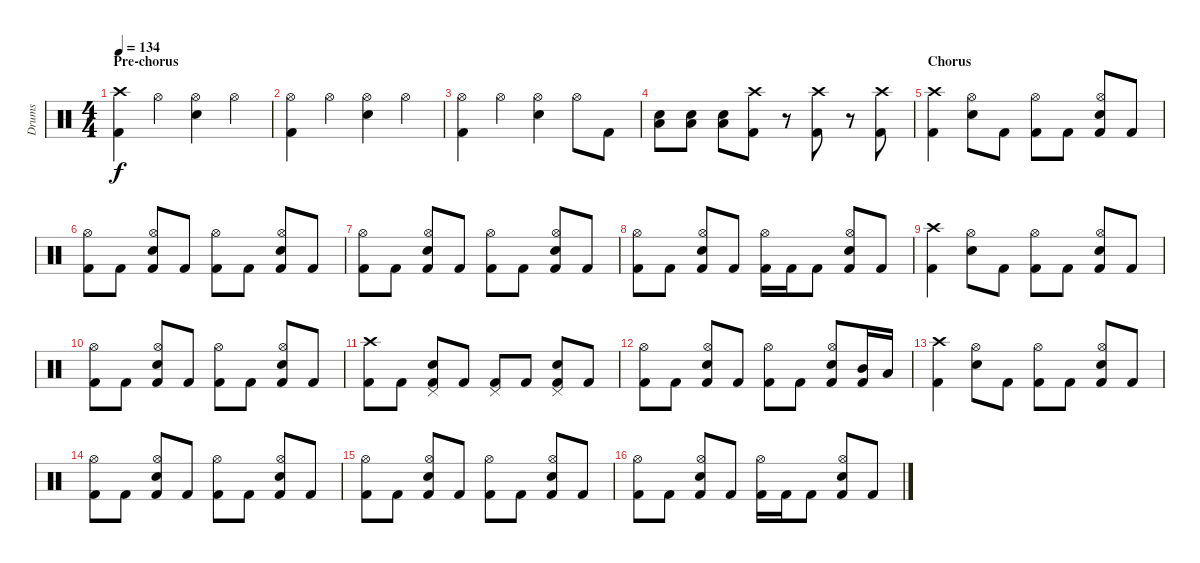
\track ("Drums" "Drums") {instrument percussion}
\staff {score}
\articulation defaults
\ts (4 4)
\section ("" "Pre-chorus")
\tempo 134
\clef neutral
\ks c
("Crash high (hit)" "Kick (hit) 2").4{dy f} "Hi-Hat (open)".4 ("Hi-Hat (open)" "Snare (hit) 2").4 "Hi-Hat (open)".4 |
("Hi-Hat (open)" "Kick (hit) 2").4 "Hi-Hat (open)".4 ("Hi-Hat (open)" "Snare (hit) 2").4 "Hi-Hat (open)".4 |
("Hi-Hat (open)" "Kick (hit) 2").4 "Hi-Hat (open)".4 ("Hi-Hat (open)" "Snare (hit) 2").4 "Hi-Hat (open)".8 "Kick (hit) 2".8 |
("Low Tom (hit)" "Snare (hit) 2").8 ("Low Tom (hit)" "Snare (hit) 2").8 ("Low Tom (hit)" "Snare (hit) 2").8 ("Crash high (hit)" "Kick (hit) 2").8 r.8 ("Crash high (hit)" "Kick (hit) 2").8 r.8 ("Crash high (hit)" "Kick (hit) 2").8 |
\section ("" "Chorus")
("Crash high (hit)" "Kick (hit) 2").4 ("Hi-Hat (open)" "Snare (hit) 2").8 "Kick (hit) 2".8 ("Hi-Hat (open)" "Kick (hit) 2").8 "Kick (hit) 2".8 ("Hi-Hat (open)" "Snare (hit) 2" "Kick (hit) 2").8 "Kick (hit) 2".8 |
("Hi-Hat (open)" "Kick (hit) 2").8 "Kick (hit) 2".8 ("Hi-Hat (open)" "Snare (hit) 2" "Kick (hit) 2").8 "Kick (hit) 2".8 ("Hi-Hat (open)" "Kick (hit) 2").8 "Kick (hit) 2".8 ("Hi-Hat (open)" "Snare (hit) 2" "Kick (hit) 2").8 "Kick (hit) 2".8 |
("Hi-Hat (open)" "Kick (hit) 2").8 "Kick (hit) 2".8 ("Hi-Hat (open)" "Snare (hit) 2" "Kick (hit) 2").8 "Kick (hit) 2".8 ("Hi-Hat (open)" "Kick (hit) 2").8 "Kick (hit) 2".8 ("Hi-Hat (open)" "Snare (hit) 2" "Kick (hit) 2").8 "Kick (hit) 2".8 |
("Hi-Hat (open)" "Kick (hit) 2").8 "Kick (hit) 2".8 ("Hi-Hat (open)" "Snare (hit) 2" "Kick (hit) 2").8 "Kick (hit) 2".8 ("Hi-Hat (open)" "Kick (hit) 2").16 "Kick (hit) 2".16 "Kick (hit) 2".8 ("Hi-Hat (open)" "Snare (hit) 2" "Kick (hit) 2").8 "Kick (hit) 2".8 |
("Crash high (hit)" "Kick (hit) 2").4 ("Hi-Hat (open)" "Snare (hit) 2").8 "Kick (hit) 2".8 ("Hi-Hat (open)" "Kick (hit) 2").8 "Kick (hit) 2".8 ("Hi-Hat (open)" "Snare (hit) 2" "Kick (hit) 2").8 "Kick (hit) 2".8 |
("Hi-Hat (open)" "Kick (hit) 2").8 "Kick (hit) 2".8 ("Hi-Hat (open)" "Snare (hit) 2" "Kick (hit) 2").8 "Kick (hit) 2".8 ("Hi-Hat (open)" "Kick (hit) 2").8 "Kick (hit) 2".8 ("Hi-Hat (open)" "Snare (hit) 2" "Kick (hit) 2").8 "Kick (hit) 2".8 |
("Crash high (hit)" "Kick (hit) 2").8 "Kick (hit) 2".8 ("Pedal Hi-Hat (hit)" "Snare (hit) 2" "Kick (hit) 2").8 "Kick (hit) 2".8 ("Pedal Hi-Hat (hit)" "Kick (hit) 2").8 "Kick (hit) 2".8 ("Pedal Hi-Hat (hit)" "Snare (hit) 2" "Kick (hit) 2").8 "Kick (hit) 2".8 |
("Hi-Hat (open)" "Kick (hit) 2").8 "Kick (hit) 2".8 ("Hi-Hat (open)" "Snare (hit) 2" "Kick (hit) 2").8 "Kick (hit) 2".8 ("Hi-Hat (open)" "Kick (hit) 2").8 "Kick (hit) 2".8 ("Hi-Hat (open)" "Snare (hit) 2" "Kick (hit) 2").8 ("Mid Tom (hit)" "Kick (hit) 2").16 "Low Tom (hit)".16 |
\section ("" "")
("Crash high (hit)" "Kick (hit) 2").4 ("Hi-Hat (open)" "Snare (hit) 2").8 "Kick (hit) 2".8 ("Hi-Hat (open)" "Kick (hit) 2").8 "Kick (hit) 2".8 ("Hi-Hat (open)" "Snare (hit) 2" "Kick (hit) 2").8 "Kick (hit) 2".8 |
("Hi-Hat (open)" "Kick (hit) 2").8 "Kick (hit) 2".8 ("Hi-Hat (open)" "Snare (hit) 2" "Kick (hit) 2").8 "Kick (hit) 2".8 ("Hi-Hat (open)" "Kick (hit) 2").8 "Kick (hit) 2".8 ("Hi-Hat (open)" "Snare (hit) 2" "Kick (hit) 2").8 "Kick (hit) 2".8 |
("Hi-Hat (open)" "Kick (hit) 2").8 "Kick (hit) 2".8 ("Hi-Hat (open)" "Snare (hit) 2" "Kick (hit) 2").8 "Kick (hit) 2".8 ("Hi-Hat (open)" "Kick (hit) 2").8 "Kick (hit) 2".8 ("Hi-Hat (open)" "Snare (hit) 2" "Kick (hit) 2").8 "Kick (hit) 2".8 |
("Hi-Hat (open)" "Kick (hit) 2").8 "Kick (hit) 2".8 ("Hi-Hat (open)" "Snare (hit) 2" "Kick (hit) 2").8 "Kick (hit) 2".8 ("Hi-Hat (open)" "Kick (hit) 2").16 "Kick (hit) 2".16 "Kick (hit) 2".8 ("Hi-Hat (open)" "Snare (hit) 2" "Kick (hit) 2").8 "Kick (hit) 2".8
